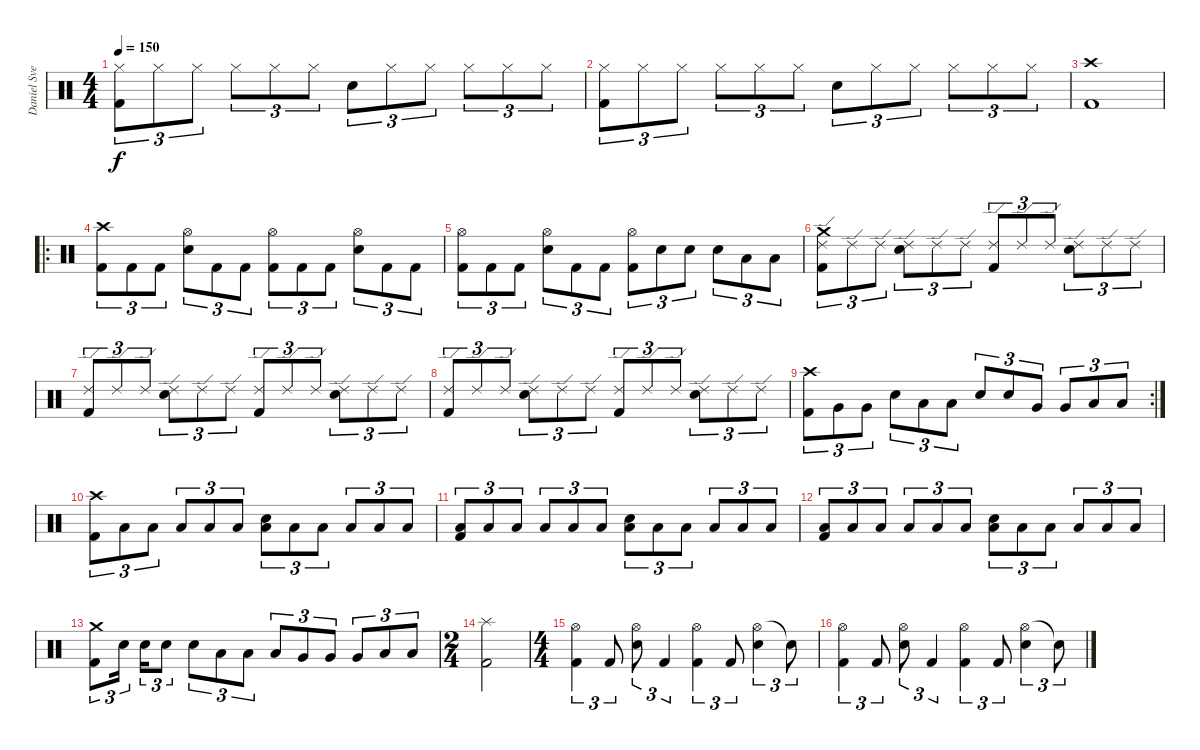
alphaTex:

\track ("Daniel Svensson" "Daniel Sve") {instrument percussion}
\staff {score}
\articulation defaults
\ts (4 4)
\tempo 150
\clef neutral
\ks c
("Hi-Hat (closed)" "Kick (hit) 2").8{tu (3 2) dy f} "Hi-Hat (closed)".8{tu (3 2)} "Hi-Hat (closed)".8{tu (3 2)} "Hi-Hat (closed)".8{tu (3 2)} "Hi-Hat (closed)".8{tu (3 2)} "Hi-Hat (closed)".8{tu (3 2)} "Electric Snare (hit)".8{tu (3 2)} "Hi-Hat (closed)".8{tu (3 2)} "Hi-Hat (closed)".8{tu (3 2)} "Hi-Hat (closed)".8{tu (3 2)} "Hi-Hat (closed)".8{tu (3 2)} "Hi-Hat (closed)".8{tu (3 2)} |
("Hi-Hat (closed)" "Kick (hit) 2").8{tu (3 2)} "Hi-Hat (closed)".8{tu (3 2)} "Hi-Hat (closed)".8{tu (3 2)} "Hi-Hat (closed)".8{tu (3 2)} "Hi-Hat (closed)".8{tu (3 2)} "Hi-Hat (closed)".8{tu (3 2)} "Electric Snare (hit)".8{tu (3 2)} "Hi-Hat (closed)".8{tu (3 2)} "Hi-Hat (closed)".8{tu (3 2)} "Hi-Hat (closed)".8{tu (3 2)} "Hi-Hat (closed)".8{tu (3 2)} "Hi-Hat (closed)".8{tu (3 2)} |
("Crash high (hit)" "Kick (hit) 2").1 |
\ro
("Crash high (hit)" "Kick (hit) 2").8{tu (3 2)} "Kick (hit) 2".8{tu (3 2)} "Kick (hit) 2".8{tu (3 2)} ("Hi-Hat (open)" "Electric Snare (hit)").8{tu (3 2)} "Kick (hit) 2".8{tu (3 2)} "Kick (hit) 2".8{tu (3 2)} ("Hi-Hat (open)" "Kick (hit) 2").8{tu (3 2)} "Kick (hit) 2".8{tu (3 2)} "Kick (hit) 2".8{tu (3 2)} ("Hi-Hat (open)" "Electric Snare (hit)").8{tu (3 2)} "Kick (hit) 2".8{tu (3 2)} "Kick (hit) 2".8{tu (3 2)} |
("Hi-Hat (open)" "Kick (hit) 2").8{tu (3 2)} "Kick (hit) 2".8{tu (3 2)} "Kick (hit) 2".8{tu (3 2)} ("Hi-Hat (open)" "Electric Snare (hit)").8{tu (3 2)} "Kick (hit) 2".8{tu (3 2)} "Kick (hit) 2".8{tu (3 2)} ("Hi-Hat (open)" "Kick (hit) 2").8{tu (3 2)} "Electric Snare (hit)".8{tu (3 2)} "Electric Snare (hit)".8{tu (3 2)} "Electric Snare (hit)".8{tu (3 2)} "Low Floor Tom (hit)".8{tu (3 2)} "Low Floor Tom (hit)".8{tu (3 2)} |
("Ride (edge) 2" "Crash medium (hit)" "Kick (hit) 2").8{tu (3 2)} "Ride (edge) 2".8{tu (3 2)} "Ride (edge) 2".8{tu (3 2)} ("Ride (edge) 2" "Electric Snare (hit)").8{tu (3 2)} "Ride (edge) 2".8{tu (3 2)} "Ride (edge) 2".8{tu (3 2)} ("Ride (edge) 2" "Kick (hit) 2").8{tu (3 2)} "Ride (edge) 2".8{tu (3 2)} "Ride (edge) 2".8{tu (3 2)} ("Ride (edge) 2" "Electric Snare (hit)").8{tu (3 2)} "Ride (edge) 2".8{tu (3 2)} "Ride (edge) 2".8{tu (3 2)} |
("Ride (edge) 2" "Kick (hit) 2").8{tu (3 2)} "Ride (edge) 2".8{tu (3 2)} "Ride (edge) 2".8{tu (3 2)} ("Ride (edge) 2" "Electric Snare (hit)").8{tu (3 2)} "Ride (edge) 2".8{tu (3 2)} "Ride (edge) 2".8{tu (3 2)} ("Ride (edge) 2" "Kick (hit) 2").8{tu (3 2)} "Ride (edge) 2".8{tu (3 2)} "Ride (edge) 2".8{tu (3 2)} ("Ride (edge) 2" "Electric Snare (hit)").8{tu (3 2)} "Ride (edge) 2".8{tu (3 2)} "Ride (edge) 2".8{tu (3 2)} |
("Ride (edge) 2" "Kick (hit) 2").8{tu (3 2)} "Ride (edge) 2".8{tu (3 2)} "Ride (edge) 2".8{tu (3 2)} ("Ride (edge) 2" "Electric Snare (hit)").8{tu (3 2)} "Ride (edge) 2".8{tu (3 2)} "Ride (edge) 2".8{tu (3 2)} ("Ride (edge) 2" "Kick (hit) 2").8{tu (3 2)} "Ride (edge) 2".8{tu (3 2)} "Ride (edge) 2".8{tu (3 2)} ("Ride (edge) 2" "Electric Snare (hit)").8{tu (3 2)} "Ride (edge) 2".8{tu (3 2)} "Ride (edge) 2".8{tu (3 2)} |
\rc 2
("Crash high (hit)" "Kick (hit) 2").8{tu (3 2)} "Very Low Tom (hit)".8{tu (3 2)} "Very Low Tom (hit)".8{tu (3 2)} "Electric Snare (hit)".8{tu (3 2)} "Low Floor Tom (hit)".8{tu (3 2)} "Low Floor Tom (hit)".8{tu (3 2)} "Electric Snare (hit)".8{tu (3 2)} "Electric Snare (hit)".8{tu (3 2)} "Very Low Tom (hit)".8{tu (3 2)} "Very Low Tom (hit)".8{tu (3 2)} "Low Floor Tom (hit)".8{tu (3 2)} "Low Floor Tom (hit)".8{tu (3 2)} |
("Crash high (hit)" "Kick (hit) 2").8{tu (3 2)} "Low Floor Tom (hit)".8{tu (3 2)} "Low Floor Tom (hit)".8{tu (3 2)} "Low Floor Tom (hit)".8{tu (3 2)} "Low Floor Tom (hit)".8{tu (3 2)} "Low Floor Tom (hit)".8{tu (3 2)} ("Electric Snare (hit)" "Low Floor Tom (hit)").8{tu (3 2)} "Low Floor Tom (hit)".8{tu (3 2)} "Low Floor Tom (hit)".8{tu (3 2)} "Low Floor Tom (hit)".8{tu (3 2)} "Low Floor Tom (hit)".8{tu (3 2)} "Low Floor Tom (hit)".8{tu (3 2)} |
("Kick (hit) 2" "Low Floor Tom (hit)").8{tu (3 2)} "Low Floor Tom (hit)".8{tu (3 2)} "Low Floor Tom (hit)".8{tu (3 2)} "Low Floor Tom (hit)".8{tu (3 2)} "Low Floor Tom (hit)".8{tu (3 2)} "Low Floor Tom (hit)".8{tu (3 2)} ("Electric Snare (hit)" "Low Floor Tom (hit)").8{tu (3 2)} "Low Floor Tom (hit)".8{tu (3 2)} "Low Floor Tom (hit)".8{tu (3 2)} "Low Floor Tom (hit)".8{tu (3 2)} "Low Floor Tom (hit)".8{tu (3 2)} "Low Floor Tom (hit)".8{tu (3 2)} |
("Kick (hit) 2" "Low Floor Tom (hit)").8{tu (3 2)} "Low Floor Tom (hit)".8{tu (3 2)} "Low Floor Tom (hit)".8{tu (3 2)} "Low Floor Tom (hit)".8{tu (3 2)} "Low Floor Tom (hit)".8{tu (3 2)} "Low Floor Tom (hit)".8{tu (3 2)} ("Electric Snare (hit)" "Low Floor Tom (hit)").8{tu (3 2)} "Low Floor Tom (hit)".8{tu (3 2)} "Low Floor Tom (hit)".8{tu (3 2)} "Low Floor Tom (hit)".8{tu (3 2)} "Low Floor Tom (hit)".8{tu (3 2)} "Low Floor Tom (hit)".8{tu (3 2)} |
("Crash medium (hit)" "Kick (hit) 2").8{tu (3 2)} "Electric Snare (hit)".16{tu (3 2)} "Electric Snare (hit)".16{tu (3 2)} "Electric Snare (hit)".8{tu (3 2)} "Electric Snare (hit)".8{tu (3 2)} "Low Tom (hit)".8{tu (3 2)} "Low Tom (hit)".8{tu (3 2)} "Low Tom (hit)".8{tu (3 2)} "Very Low Tom (hit)".8{tu (3 2)} "Very Low Tom (hit)".8{tu (3 2)} "Very Low Tom (hit)".8{tu (3 2)} "Low Floor Tom (hit)".8{tu (3 2)} "Low Floor Tom (hit)".8{tu (3 2)} |
\ts (2 4)
("Splash (hit)" "Kick (hit) 2").2 |
\ts (4 4)
("Hi-Hat (open)" "Kick (hit) 2").4{tu (3 2)} "Kick (hit) 2".8{tu (3 2)} ("Hi-Hat (open)" "Electric Snare (hit)").8{tu (3 2)} "Kick (hit) 2".4{tu (3 2)} ("Hi-Hat (open)" "Kick (hit) 2").4{tu (3 2)} "Kick (hit) 2".8{tu (3 2)} ("Hi-Hat (open)" "Electric Snare (hit)").4{tu (3 2)} "Snare (hit)"{t}.8{tu (3 2)} |
("Hi-Hat (open)" "Kick (hit) 2").4{tu (3 2)} "Kick (hit) 2".8{tu (3 2)} ("Hi-Hat (open)" "Electric Snare (hit)").8{tu (3 2)} "Kick (hit) 2".4{tu (3 2)} ("Hi-Hat (open)" "Kick (hit) 2").4{tu (3 2)} "Kick (hit) 2".8{tu (3 2)} ("Hi-Hat (open)" "Electric Snare (hit)").4{tu (3 2)} "Snare (hit)"{t}.8{tu (3 2)}
